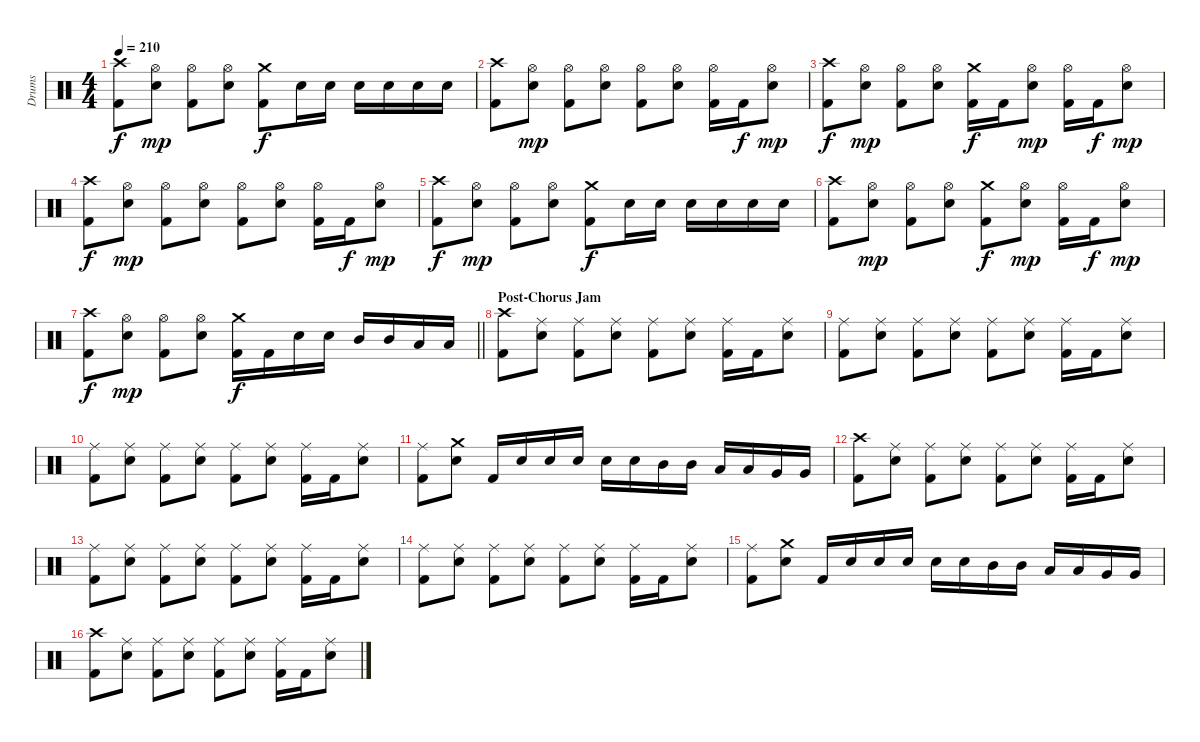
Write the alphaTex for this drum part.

\track ("Drums" "Drums") {instrument percussion}
\staff {score}
\articulation defaults
\ts (4 4)
\tempo 210
\clef neutral
\ks c
("Crash high (hit)" "Kick (hit) 2").8{dy f} ("Hi-Hat (open)" "Snare (hit) 2").8{dy mp} ("Hi-Hat (open)" "Kick (hit) 2").8 ("Hi-Hat (open)" "Snare (hit) 2").8 ("Crash medium (hit)" "Kick (hit) 2").8{dy f} "Snare (hit) 2".16 "Snare (hit) 2".16 "Snare (hit) 2".16 "Snare (hit) 2".16 "Snare (hit) 2".16 "Snare (hit) 2".16 |
("Crash high (hit)" "Kick (hit) 2").8 ("Hi-Hat (open)" "Snare (hit) 2").8{dy mp} ("Hi-Hat (open)" "Kick (hit) 2").8 ("Hi-Hat (open)" "Snare (hit) 2").8 ("Hi-Hat (open)" "Kick (hit) 2").8 ("Hi-Hat (open)" "Snare (hit) 2").8 ("Hi-Hat (open)" "Kick (hit) 2").16 "Kick (hit) 2".16{dy f} ("Hi-Hat (open)" "Snare (hit) 2").8{dy mp} |
("Crash high (hit)" "Kick (hit) 2").8{dy f} ("Hi-Hat (open)" "Snare (hit) 2").8{dy mp} ("Hi-Hat (open)" "Kick (hit) 2").8 ("Hi-Hat (open)" "Snare (hit) 2").8 ("Crash medium (hit)" "Kick (hit) 2").16{dy f} "Kick (hit) 2".16 ("Hi-Hat (open)" "Snare (hit) 2").8{dy mp} ("Hi-Hat (open)" "Kick (hit) 2").16 "Kick (hit) 2".16{dy f} ("Hi-Hat (open)" "Snare (hit) 2").8{dy mp} |
("Crash high (hit)" "Kick (hit) 2").8{dy f} ("Hi-Hat (open)" "Snare (hit) 2").8{dy mp} ("Hi-Hat (open)" "Kick (hit) 2").8 ("Hi-Hat (open)" "Snare (hit) 2").8 ("Hi-Hat (open)" "Kick (hit) 2").8 ("Hi-Hat (open)" "Snare (hit) 2").8 ("Hi-Hat (open)" "Kick (hit) 2").16 "Kick (hit) 2".16{dy f} ("Hi-Hat (open)" "Snare (hit) 2").8{dy mp} |
("Crash high (hit)" "Kick (hit) 2").8{dy f} ("Hi-Hat (open)" "Snare (hit) 2").8{dy mp} ("Hi-Hat (open)" "Kick (hit) 2").8 ("Hi-Hat (open)" "Snare (hit) 2").8 ("Crash medium (hit)" "Kick (hit) 2").8{dy f} "Snare (hit) 2".16 "Snare (hit) 2".16 "Snare (hit) 2".16 "Snare (hit) 2".16 "Snare (hit) 2".16 "Snare (hit) 2".16 |
("Crash high (hit)" "Kick (hit) 2").8 ("Hi-Hat (open)" "Snare (hit) 2").8{dy mp} ("Hi-Hat (open)" "Kick (hit) 2").8 ("Hi-Hat (open)" "Snare (hit) 2").8 ("Crash medium (hit)" "Kick (hit) 2").8{dy f} ("Hi-Hat (open)" "Snare (hit) 2").8{dy mp} ("Hi-Hat (open)" "Kick (hit) 2").16 "Kick (hit) 2".16{dy f} ("Hi-Hat (open)" "Snare (hit) 2").8{dy mp} |
\barLineRight lightlight
("Crash high (hit)" "Kick (hit) 2").8{dy f} ("Hi-Hat (open)" "Snare (hit) 2").8{dy mp} ("Hi-Hat (open)" "Kick (hit) 2").8 ("Hi-Hat (open)" "Snare (hit) 2").8 ("Crash medium (hit)" "Kick (hit) 2").16{dy f} "Kick (hit) 2".16 "Snare (hit) 2".16 "Snare (hit) 2".16 "Mid Tom (hit)".16 "Mid Tom (hit)".16 "Low Tom (hit)".16 "Low Tom (hit)".16 |
\section ("" "Post-Chorus Jam")
("Crash high (hit)" "Kick (hit) 2").8 ("Ride (middle)" "Snare (hit) 2").8 ("Ride (middle)" "Kick (hit) 2").8 ("Ride (middle)" "Snare (hit) 2").8 ("Ride (middle)" "Kick (hit) 2").8 ("Ride (middle)" "Snare (hit) 2").8 ("Ride (middle)" "Kick (hit) 2").16 "Kick (hit) 2".16 ("Ride (middle)" "Snare (hit) 2").8 |
("Ride (middle)" "Kick (hit) 2").8 ("Ride (middle)" "Snare (hit) 2").8 ("Ride (middle)" "Kick (hit) 2").8 ("Ride (middle)" "Snare (hit) 2").8 ("Ride (middle)" "Kick (hit) 2").8 ("Ride (middle)" "Snare (hit) 2").8 ("Ride (middle)" "Kick (hit) 2").16 "Kick (hit) 2".16 ("Ride (middle)" "Snare (hit) 2").8 |
("Ride (middle)" "Kick (hit) 2").8 ("Ride (middle)" "Snare (hit) 2").8 ("Ride (middle)" "Kick (hit) 2").8 ("Ride (middle)" "Snare (hit) 2").8 ("Ride (middle)" "Kick (hit) 2").8 ("Ride (middle)" "Snare (hit) 2").8 ("Ride (middle)" "Kick (hit) 2").16 "Kick (hit) 2".16 ("Ride (middle)" "Snare (hit) 2").8 |
("Ride (middle)" "Kick (hit) 2").8 ("Crash medium (hit)" "Snare (hit) 2").8 "Kick (hit) 2".16 "Snare (hit) 2".16 "Snare (hit) 2".16 "Snare (hit) 2".16 "Snare (hit) 2".16 "Snare (hit) 2".16 "Mid Tom (hit)".16 "Mid Tom (hit)".16 "Low Tom (hit)".16 "Low Tom (hit)".16 "Very Low Tom (hit)".16 "Very Low Tom (hit)".16 |
("Crash high (hit)" "Kick (hit) 2").8 ("Ride (middle)" "Snare (hit) 2").8 ("Ride (middle)" "Kick (hit) 2").8 ("Ride (middle)" "Snare (hit) 2").8 ("Ride (middle)" "Kick (hit) 2").8 ("Ride (middle)" "Snare (hit) 2").8 ("Ride (middle)" "Kick (hit) 2").16 "Kick (hit) 2".16 ("Ride (middle)" "Snare (hit) 2").8 |
("Ride (middle)" "Kick (hit) 2").8 ("Ride (middle)" "Snare (hit) 2").8 ("Ride (middle)" "Kick (hit) 2").8 ("Ride (middle)" "Snare (hit) 2").8 ("Ride (middle)" "Kick (hit) 2").8 ("Ride (middle)" "Snare (hit) 2").8 ("Ride (middle)" "Kick (hit) 2").16 "Kick (hit) 2".16 ("Ride (middle)" "Snare (hit) 2").8 |
("Ride (middle)" "Kick (hit) 2").8 ("Ride (middle)" "Snare (hit) 2").8 ("Ride (middle)" "Kick (hit) 2").8 ("Ride (middle)" "Snare (hit) 2").8 ("Ride (middle)" "Kick (hit) 2").8 ("Ride (middle)" "Snare (hit) 2").8 ("Ride (middle)" "Kick (hit) 2").16 "Kick (hit) 2".16 ("Ride (middle)" "Snare (hit) 2").8 |
("Ride (middle)" "Kick (hit) 2").8 ("Crash medium (hit)" "Snare (hit) 2").8 "Kick (hit) 2".16 "Snare (hit) 2".16 "Snare (hit) 2".16 "Snare (hit) 2".16 "Snare (hit) 2".16 "Snare (hit) 2".16 "Mid Tom (hit)".16 "Mid Tom (hit)".16 "Low Tom (hit)".16 "Low Tom (hit)".16 "Very Low Tom (hit)".16 "Very Low Tom (hit)".16 |
("Crash high (hit)" "Kick (hit) 2").8 ("Ride (middle)" "Snare (hit) 2").8 ("Ride (middle)" "Kick (hit) 2").8 ("Ride (middle)" "Snare (hit) 2").8 ("Ride (middle)" "Kick (hit) 2").8 ("Ride (middle)" "Snare (hit) 2").8 ("Ride (middle)" "Kick (hit) 2").16 "Kick (hit) 2".16 ("Ride (middle)" "Snare (hit) 2").8
